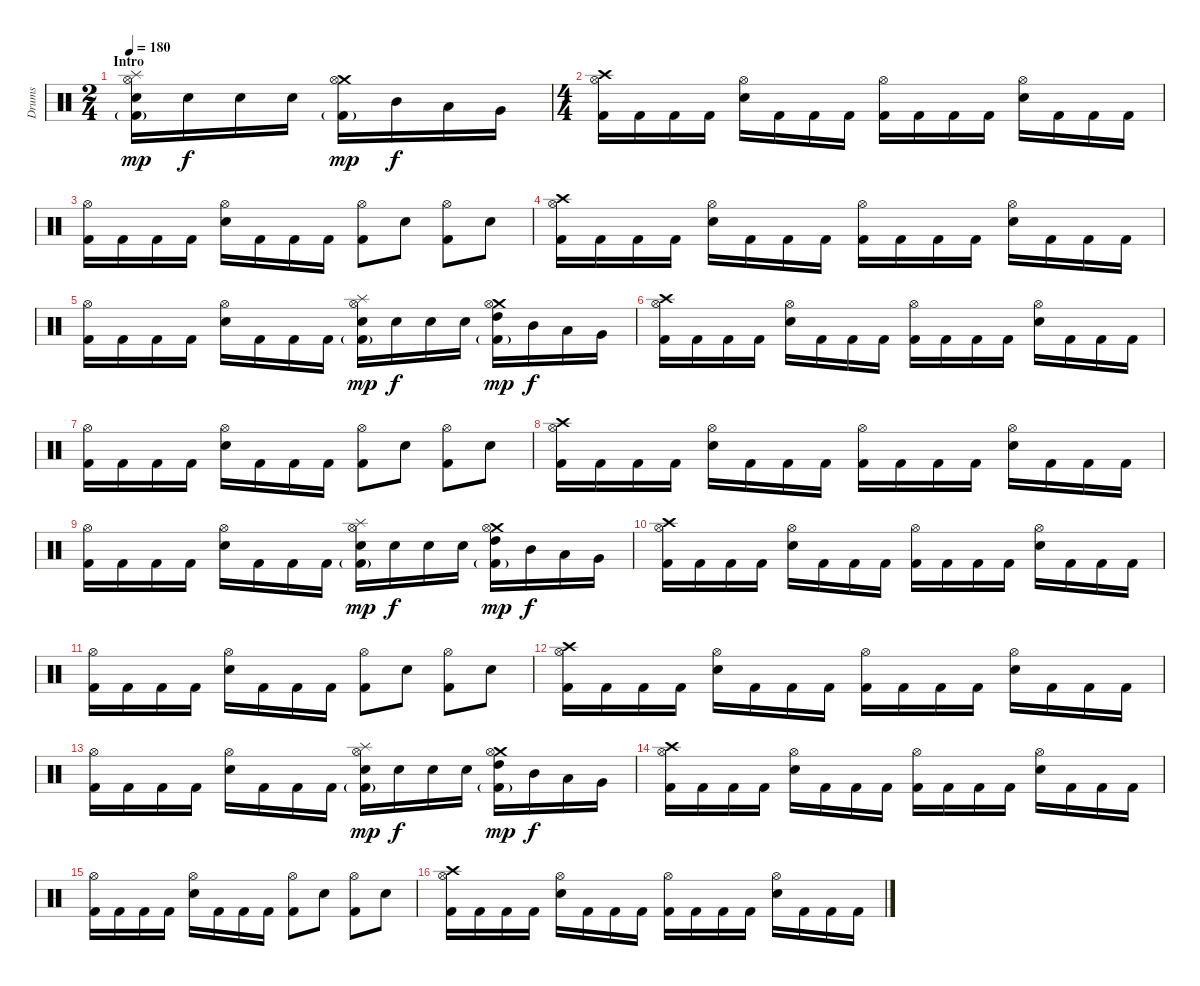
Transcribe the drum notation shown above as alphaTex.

\track ("Drums" "Drums") {instrument percussion}
\staff {score}
\articulation defaults
\ts (2 4)
\section ("" "Intro")
\tempo 180
\clef neutral
\ks c
("Splash (hit)" "Hi-Hat (open)" "Electric Snare (hit)" "Kick (hit) 2"{g}).16{dy mp} "Electric Snare (hit)".16{dy f} "Electric Snare (hit)".16 "Electric Snare (hit)".16 ("Crash medium (hit)" "Hi-Hat (open)" "Kick (hit) 2"{g}).16{dy mp} "Mid Tom (hit)".16{dy f} "Low Tom (hit)".16 "Very Low Tom (hit)".16 |
\ts (4 4)
("Crash high (hit)" "Hi-Hat (open)" "Kick (hit) 2").16 "Kick (hit) 2".16 "Kick (hit) 2".16 "Kick (hit) 2".16 ("Hi-Hat (open)" "Electric Snare (hit)").16 "Kick (hit) 2".16 "Kick (hit) 2".16 "Kick (hit) 2".16 ("Hi-Hat (open)" "Kick (hit) 2").16 "Kick (hit) 2".16 "Kick (hit) 2".16 "Kick (hit) 2".16 ("Hi-Hat (open)" "Electric Snare (hit)").16 "Kick (hit) 2".16 "Kick (hit) 2".16 "Kick (hit) 2".16 |
("Hi-Hat (open)" "Kick (hit) 2").16 "Kick (hit) 2".16 "Kick (hit) 2".16 "Kick (hit) 2".16 ("Hi-Hat (open)" "Electric Snare (hit)").16 "Kick (hit) 2".16 "Kick (hit) 2".16 "Kick (hit) 2".16 ("Hi-Hat (open)" "Kick (hit) 2").8 "Electric Snare (hit)".8 ("Hi-Hat (open)" "Kick (hit) 2").8 "Electric Snare (hit)".8 |
("Crash high (hit)" "Hi-Hat (open)" "Kick (hit) 2").16 "Kick (hit) 2".16 "Kick (hit) 2".16 "Kick (hit) 2".16 ("Hi-Hat (open)" "Electric Snare (hit)").16 "Kick (hit) 2".16 "Kick (hit) 2".16 "Kick (hit) 2".16 ("Hi-Hat (open)" "Kick (hit) 2").16 "Kick (hit) 2".16 "Kick (hit) 2".16 "Kick (hit) 2".16 ("Hi-Hat (open)" "Electric Snare (hit)").16 "Kick (hit) 2".16 "Kick (hit) 2".16 "Kick (hit) 2".16 |
("Hi-Hat (open)" "Kick (hit) 2").16 "Kick (hit) 2".16 "Kick (hit) 2".16 "Kick (hit) 2".16 ("Hi-Hat (open)" "Electric Snare (hit)").16 "Kick (hit) 2".16 "Kick (hit) 2".16 "Kick (hit) 2".16 ("Splash (hit)" "Hi-Hat (open)" "Electric Snare (hit)" "Kick (hit) 2"{g}).16{dy mp} "Electric Snare (hit)".16{dy f} "Electric Snare (hit)".16 "Electric Snare (hit)".16 ("Crash medium (hit)" "Hi-Hat (open)" "High Tom (hit)" "Kick (hit) 2"{g}).16{dy mp} "Mid Tom (hit)".16{dy f} "Low Tom (hit)".16 "Very Low Tom (hit)".16 |
("Crash high (hit)" "Hi-Hat (open)" "Kick (hit) 2").16 "Kick (hit) 2".16 "Kick (hit) 2".16 "Kick (hit) 2".16 ("Hi-Hat (open)" "Electric Snare (hit)").16 "Kick (hit) 2".16 "Kick (hit) 2".16 "Kick (hit) 2".16 ("Hi-Hat (open)" "Kick (hit) 2").16 "Kick (hit) 2".16 "Kick (hit) 2".16 "Kick (hit) 2".16 ("Hi-Hat (open)" "Electric Snare (hit)").16 "Kick (hit) 2".16 "Kick (hit) 2".16 "Kick (hit) 2".16 |
("Hi-Hat (open)" "Kick (hit) 2").16 "Kick (hit) 2".16 "Kick (hit) 2".16 "Kick (hit) 2".16 ("Hi-Hat (open)" "Electric Snare (hit)").16 "Kick (hit) 2".16 "Kick (hit) 2".16 "Kick (hit) 2".16 ("Hi-Hat (open)" "Kick (hit) 2").8 "Electric Snare (hit)".8 ("Hi-Hat (open)" "Kick (hit) 2").8 "Electric Snare (hit)".8 |
("Crash high (hit)" "Hi-Hat (open)" "Kick (hit) 2").16 "Kick (hit) 2".16 "Kick (hit) 2".16 "Kick (hit) 2".16 ("Hi-Hat (open)" "Electric Snare (hit)").16 "Kick (hit) 2".16 "Kick (hit) 2".16 "Kick (hit) 2".16 ("Hi-Hat (open)" "Kick (hit) 2").16 "Kick (hit) 2".16 "Kick (hit) 2".16 "Kick (hit) 2".16 ("Hi-Hat (open)" "Electric Snare (hit)").16 "Kick (hit) 2".16 "Kick (hit) 2".16 "Kick (hit) 2".16 |
("Hi-Hat (open)" "Kick (hit) 2").16 "Kick (hit) 2".16 "Kick (hit) 2".16 "Kick (hit) 2".16 ("Hi-Hat (open)" "Electric Snare (hit)").16 "Kick (hit) 2".16 "Kick (hit) 2".16 "Kick (hit) 2".16 ("Splash (hit)" "Hi-Hat (open)" "Electric Snare (hit)" "Kick (hit) 2"{g}).16{dy mp} "Electric Snare (hit)".16{dy f} "Electric Snare (hit)".16 "Electric Snare (hit)".16 ("Crash medium (hit)" "Hi-Hat (open)" "High Tom (hit)" "Kick (hit) 2"{g}).16{dy mp} "Mid Tom (hit)".16{dy f} "Low Tom (hit)".16 "Very Low Tom (hit)".16 |
("Crash high (hit)" "Hi-Hat (open)" "Kick (hit) 2").16 "Kick (hit) 2".16 "Kick (hit) 2".16 "Kick (hit) 2".16 ("Hi-Hat (open)" "Electric Snare (hit)").16 "Kick (hit) 2".16 "Kick (hit) 2".16 "Kick (hit) 2".16 ("Hi-Hat (open)" "Kick (hit) 2").16 "Kick (hit) 2".16 "Kick (hit) 2".16 "Kick (hit) 2".16 ("Hi-Hat (open)" "Electric Snare (hit)").16 "Kick (hit) 2".16 "Kick (hit) 2".16 "Kick (hit) 2".16 |
("Hi-Hat (open)" "Kick (hit) 2").16 "Kick (hit) 2".16 "Kick (hit) 2".16 "Kick (hit) 2".16 ("Hi-Hat (open)" "Electric Snare (hit)").16 "Kick (hit) 2".16 "Kick (hit) 2".16 "Kick (hit) 2".16 ("Hi-Hat (open)" "Kick (hit) 2").8 "Electric Snare (hit)".8 ("Hi-Hat (open)" "Kick (hit) 2").8 "Electric Snare (hit)".8 |
("Crash high (hit)" "Hi-Hat (open)" "Kick (hit) 2").16 "Kick (hit) 2".16 "Kick (hit) 2".16 "Kick (hit) 2".16 ("Hi-Hat (open)" "Electric Snare (hit)").16 "Kick (hit) 2".16 "Kick (hit) 2".16 "Kick (hit) 2".16 ("Hi-Hat (open)" "Kick (hit) 2").16 "Kick (hit) 2".16 "Kick (hit) 2".16 "Kick (hit) 2".16 ("Hi-Hat (open)" "Electric Snare (hit)").16 "Kick (hit) 2".16 "Kick (hit) 2".16 "Kick (hit) 2".16 |
("Hi-Hat (open)" "Kick (hit) 2").16 "Kick (hit) 2".16 "Kick (hit) 2".16 "Kick (hit) 2".16 ("Hi-Hat (open)" "Electric Snare (hit)").16 "Kick (hit) 2".16 "Kick (hit) 2".16 "Kick (hit) 2".16 ("Splash (hit)" "Hi-Hat (open)" "Electric Snare (hit)" "Kick (hit) 2"{g}).16{dy mp} "Electric Snare (hit)".16{dy f} "Electric Snare (hit)".16 "Electric Snare (hit)".16 ("Crash medium (hit)" "Hi-Hat (open)" "High Tom (hit)" "Kick (hit) 2"{g}).16{dy mp} "Mid Tom (hit)".16{dy f} "Low Tom (hit)".16 "Very Low Tom (hit)".16 |
("Crash high (hit)" "Hi-Hat (open)" "Kick (hit) 2").16 "Kick (hit) 2".16 "Kick (hit) 2".16 "Kick (hit) 2".16 ("Hi-Hat (open)" "Electric Snare (hit)").16 "Kick (hit) 2".16 "Kick (hit) 2".16 "Kick (hit) 2".16 ("Hi-Hat (open)" "Kick (hit) 2").16 "Kick (hit) 2".16 "Kick (hit) 2".16 "Kick (hit) 2".16 ("Hi-Hat (open)" "Electric Snare (hit)").16 "Kick (hit) 2".16 "Kick (hit) 2".16 "Kick (hit) 2".16 |
("Hi-Hat (open)" "Kick (hit) 2").16 "Kick (hit) 2".16 "Kick (hit) 2".16 "Kick (hit) 2".16 ("Hi-Hat (open)" "Electric Snare (hit)").16 "Kick (hit) 2".16 "Kick (hit) 2".16 "Kick (hit) 2".16 ("Hi-Hat (open)" "Kick (hit) 2").8 "Electric Snare (hit)".8 ("Hi-Hat (open)" "Kick (hit) 2").8 "Electric Snare (hit)".8 |
("Crash high (hit)" "Hi-Hat (open)" "Kick (hit) 2").16 "Kick (hit) 2".16 "Kick (hit) 2".16 "Kick (hit) 2".16 ("Hi-Hat (open)" "Electric Snare (hit)").16 "Kick (hit) 2".16 "Kick (hit) 2".16 "Kick (hit) 2".16 ("Hi-Hat (open)" "Kick (hit) 2").16 "Kick (hit) 2".16 "Kick (hit) 2".16 "Kick (hit) 2".16 ("Hi-Hat (open)" "Electric Snare (hit)").16 "Kick (hit) 2".16 "Kick (hit) 2".16 "Kick (hit) 2".16
